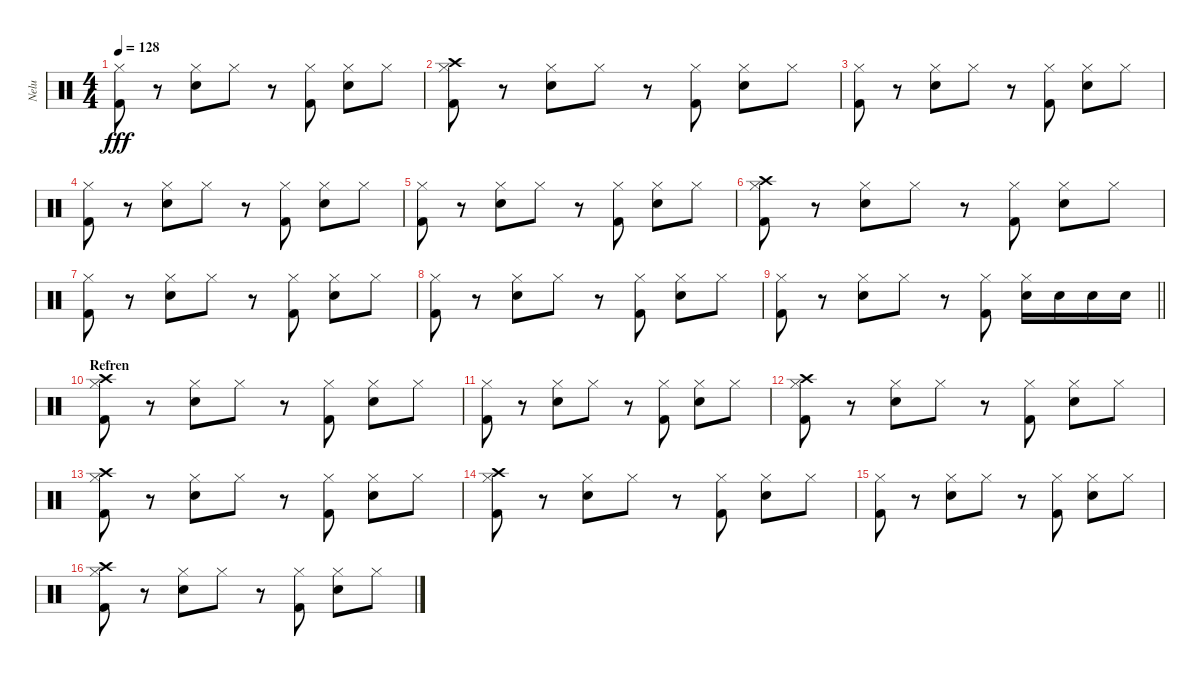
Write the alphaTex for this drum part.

\track ("Nelu" "Nelu") {instrument percussion}
\staff {score}
\articulation defaults
\ts (4 4)
\tempo 128
\clef neutral
\ks c
("Kick (hit) 2" "Hi-Hat (closed)").8{dy fff} r.8 ("Electric Snare (hit)" "Hi-Hat (closed)").8 "Hi-Hat (closed)".8 r.8 ("Hi-Hat (closed)" "Kick (hit) 2").8 ("Hi-Hat (closed)" "Electric Snare (hit)").8 "Hi-Hat (closed)".8 |
("Kick (hit) 2" "Crash high (hit)" "Hi-Hat (closed)").8 r.8 ("Electric Snare (hit)" "Hi-Hat (closed)").8 "Hi-Hat (closed)".8 r.8 ("Hi-Hat (closed)" "Kick (hit) 2").8 ("Hi-Hat (closed)" "Electric Snare (hit)").8 "Hi-Hat (closed)".8 |
("Kick (hit) 2" "Hi-Hat (closed)").8 r.8 ("Electric Snare (hit)" "Hi-Hat (closed)").8 "Hi-Hat (closed)".8 r.8 ("Hi-Hat (closed)" "Kick (hit) 2").8 ("Hi-Hat (closed)" "Electric Snare (hit)").8 "Hi-Hat (closed)".8 |
("Kick (hit) 2" "Hi-Hat (closed)").8 r.8 ("Electric Snare (hit)" "Hi-Hat (closed)").8 "Hi-Hat (closed)".8 r.8 ("Hi-Hat (closed)" "Kick (hit) 2").8 ("Hi-Hat (closed)" "Electric Snare (hit)").8 "Hi-Hat (closed)".8 |
("Kick (hit) 2" "Hi-Hat (closed)").8 r.8 ("Electric Snare (hit)" "Hi-Hat (closed)").8 "Hi-Hat (closed)".8 r.8 ("Hi-Hat (closed)" "Kick (hit) 2").8 ("Hi-Hat (closed)" "Electric Snare (hit)").8 "Hi-Hat (closed)".8 |
("Kick (hit) 2" "Crash high (hit)" "Hi-Hat (closed)").8 r.8 ("Electric Snare (hit)" "Hi-Hat (closed)").8 "Hi-Hat (closed)".8 r.8 ("Hi-Hat (closed)" "Kick (hit) 2").8 ("Hi-Hat (closed)" "Electric Snare (hit)").8 "Hi-Hat (closed)".8 |
("Kick (hit) 2" "Hi-Hat (closed)").8 r.8 ("Electric Snare (hit)" "Hi-Hat (closed)").8 "Hi-Hat (closed)".8 r.8 ("Hi-Hat (closed)" "Kick (hit) 2").8 ("Hi-Hat (closed)" "Electric Snare (hit)").8 "Hi-Hat (closed)".8 |
("Kick (hit) 2" "Hi-Hat (closed)").8 r.8 ("Electric Snare (hit)" "Hi-Hat (closed)").8 "Hi-Hat (closed)".8 r.8 ("Hi-Hat (closed)" "Kick (hit) 2").8 ("Hi-Hat (closed)" "Electric Snare (hit)").8 "Hi-Hat (closed)".8 |
\barLineRight lightlight
("Kick (hit) 2" "Hi-Hat (closed)").8 r.8 ("Electric Snare (hit)" "Hi-Hat (closed)").8 "Hi-Hat (closed)".8 r.8 ("Hi-Hat (closed)" "Kick (hit) 2").8 ("Hi-Hat (closed)" "Electric Snare (hit)").16 "Electric Snare (hit)".16 "Electric Snare (hit)".16 "Electric Snare (hit)".16 |
\section ("" "Refren")
("Kick (hit) 2" "Crash high (hit)" "Hi-Hat (closed)").8 r.8 ("Electric Snare (hit)" "Hi-Hat (closed)").8 "Hi-Hat (closed)".8 r.8 ("Hi-Hat (closed)" "Kick (hit) 2").8 ("Hi-Hat (closed)" "Electric Snare (hit)").8 "Hi-Hat (closed)".8 |
("Kick (hit) 2" "Hi-Hat (closed)").8 r.8 ("Electric Snare (hit)" "Hi-Hat (closed)").8 "Hi-Hat (closed)".8 r.8 ("Hi-Hat (closed)" "Kick (hit) 2").8 ("Hi-Hat (closed)" "Electric Snare (hit)").8 "Hi-Hat (closed)".8 |
("Kick (hit) 2" "Crash high (hit)" "Hi-Hat (closed)").8 r.8 ("Electric Snare (hit)" "Hi-Hat (closed)").8 "Hi-Hat (closed)".8 r.8 ("Hi-Hat (closed)" "Kick (hit) 2").8 ("Hi-Hat (closed)" "Electric Snare (hit)").8 "Hi-Hat (closed)".8 |
("Kick (hit) 2" "Crash high (hit)" "Hi-Hat (closed)").8 r.8 ("Electric Snare (hit)" "Hi-Hat (closed)").8 "Hi-Hat (closed)".8 r.8 ("Hi-Hat (closed)" "Kick (hit) 2").8 ("Hi-Hat (closed)" "Electric Snare (hit)").8 "Hi-Hat (closed)".8 |
("Kick (hit) 2" "Crash high (hit)" "Hi-Hat (closed)").8 r.8 ("Electric Snare (hit)" "Hi-Hat (closed)").8 "Hi-Hat (closed)".8 r.8 ("Hi-Hat (closed)" "Kick (hit) 2").8 ("Hi-Hat (closed)" "Electric Snare (hit)").8 "Hi-Hat (closed)".8 |
("Kick (hit) 2" "Hi-Hat (closed)").8 r.8 ("Electric Snare (hit)" "Hi-Hat (closed)").8 "Hi-Hat (closed)".8 r.8 ("Hi-Hat (closed)" "Kick (hit) 2").8 ("Hi-Hat (closed)" "Electric Snare (hit)").8 "Hi-Hat (closed)".8 |
("Kick (hit) 2" "Crash high (hit)" "Hi-Hat (closed)").8 r.8 ("Electric Snare (hit)" "Hi-Hat (closed)").8 "Hi-Hat (closed)".8 r.8 ("Hi-Hat (closed)" "Kick (hit) 2").8 ("Hi-Hat (closed)" "Electric Snare (hit)").8 "Hi-Hat (closed)".8
